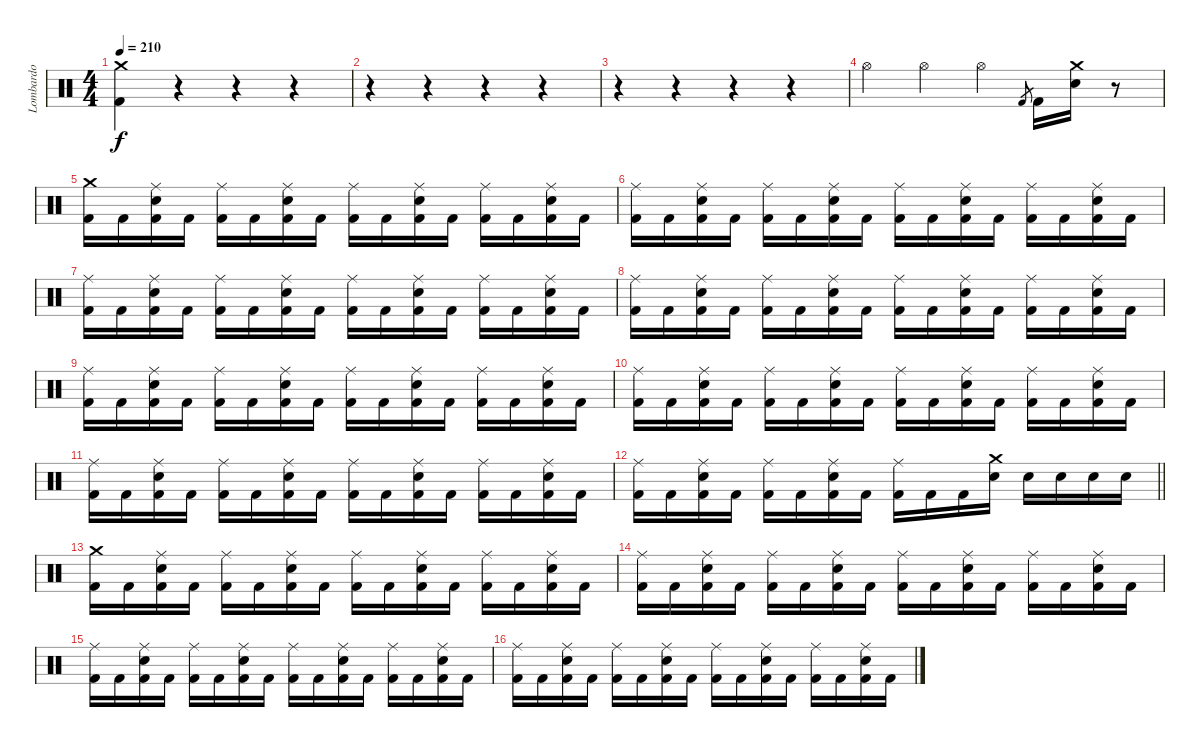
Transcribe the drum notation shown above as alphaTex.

\track ("Lombardo" "Lombardo") {instrument percussion}
\staff {score}
\articulation defaults
\ts (4 4)
\tempo 210
\clef neutral
\ks c
("Crash medium (hit)" "Kick (hit) 2").4{dy f} r.4 r.4 r.4 |
r.4 r.4 r.4 r.4 |
r.4 r.4 r.4 r.4 |
"Hi-Hat (open)".4 "Hi-Hat (open)".4 "Hi-Hat (open)".4 "Kick (hit) 2".8{gr} "Kick (hit) 2".16 ("Crash medium (hit)" "Snare (hit) 2").16 r.8 |
("Crash medium (hit)" "Kick (hit) 2").16 "Kick (hit) 2".16 ("Ride (middle)" "Snare (hit) 2" "Kick (hit) 2").16 "Kick (hit) 2".16 ("Ride (middle)" "Kick (hit) 2").16 "Kick (hit) 2".16 ("Ride (middle)" "Snare (hit) 2" "Kick (hit) 2").16 "Kick (hit) 2".16 ("Ride (middle)" "Kick (hit) 2").16 "Kick (hit) 2".16 ("Ride (middle)" "Snare (hit) 2" "Kick (hit) 2").16 "Kick (hit) 2".16 ("Ride (middle)" "Kick (hit) 2").16 "Kick (hit) 2".16 ("Ride (middle)" "Snare (hit) 2" "Kick (hit) 2").16 "Kick (hit) 2".16 |
("Ride (middle)" "Kick (hit) 2").16 "Kick (hit) 2".16 ("Ride (middle)" "Snare (hit) 2" "Kick (hit) 2").16 "Kick (hit) 2".16 ("Ride (middle)" "Kick (hit) 2").16 "Kick (hit) 2".16 ("Ride (middle)" "Snare (hit) 2" "Kick (hit) 2").16 "Kick (hit) 2".16 ("Ride (middle)" "Kick (hit) 2").16 "Kick (hit) 2".16 ("Ride (middle)" "Snare (hit) 2" "Kick (hit) 2").16 "Kick (hit) 2".16 ("Ride (middle)" "Kick (hit) 2").16 "Kick (hit) 2".16 ("Ride (middle)" "Snare (hit) 2" "Kick (hit) 2").16 "Kick (hit) 2".16 |
("Ride (middle)" "Kick (hit) 2").16 "Kick (hit) 2".16 ("Ride (middle)" "Snare (hit) 2" "Kick (hit) 2").16 "Kick (hit) 2".16 ("Ride (middle)" "Kick (hit) 2").16 "Kick (hit) 2".16 ("Ride (middle)" "Snare (hit) 2" "Kick (hit) 2").16 "Kick (hit) 2".16 ("Ride (middle)" "Kick (hit) 2").16 "Kick (hit) 2".16 ("Ride (middle)" "Snare (hit) 2" "Kick (hit) 2").16 "Kick (hit) 2".16 ("Ride (middle)" "Kick (hit) 2").16 "Kick (hit) 2".16 ("Ride (middle)" "Snare (hit) 2" "Kick (hit) 2").16 "Kick (hit) 2".16 |
("Ride (middle)" "Kick (hit) 2").16 "Kick (hit) 2".16 ("Ride (middle)" "Snare (hit) 2" "Kick (hit) 2").16 "Kick (hit) 2".16 ("Ride (middle)" "Kick (hit) 2").16 "Kick (hit) 2".16 ("Ride (middle)" "Snare (hit) 2" "Kick (hit) 2").16 "Kick (hit) 2".16 ("Ride (middle)" "Kick (hit) 2").16 "Kick (hit) 2".16 ("Ride (middle)" "Snare (hit) 2" "Kick (hit) 2").16 "Kick (hit) 2".16 ("Ride (middle)" "Kick (hit) 2").16 "Kick (hit) 2".16 ("Ride (middle)" "Snare (hit) 2" "Kick (hit) 2").16 "Kick (hit) 2".16 |
("Ride (middle)" "Kick (hit) 2").16 "Kick (hit) 2".16 ("Ride (middle)" "Snare (hit) 2" "Kick (hit) 2").16 "Kick (hit) 2".16 ("Ride (middle)" "Kick (hit) 2").16 "Kick (hit) 2".16 ("Ride (middle)" "Snare (hit) 2" "Kick (hit) 2").16 "Kick (hit) 2".16 ("Ride (middle)" "Kick (hit) 2").16 "Kick (hit) 2".16 ("Ride (middle)" "Snare (hit) 2" "Kick (hit) 2").16 "Kick (hit) 2".16 ("Ride (middle)" "Kick (hit) 2").16 "Kick (hit) 2".16 ("Ride (middle)" "Snare (hit) 2" "Kick (hit) 2").16 "Kick (hit) 2".16 |
("Ride (middle)" "Kick (hit) 2").16 "Kick (hit) 2".16 ("Ride (middle)" "Snare (hit) 2" "Kick (hit) 2").16 "Kick (hit) 2".16 ("Ride (middle)" "Kick (hit) 2").16 "Kick (hit) 2".16 ("Ride (middle)" "Snare (hit) 2" "Kick (hit) 2").16 "Kick (hit) 2".16 ("Ride (middle)" "Kick (hit) 2").16 "Kick (hit) 2".16 ("Ride (middle)" "Snare (hit) 2" "Kick (hit) 2").16 "Kick (hit) 2".16 ("Ride (middle)" "Kick (hit) 2").16 "Kick (hit) 2".16 ("Ride (middle)" "Snare (hit) 2" "Kick (hit) 2").16 "Kick (hit) 2".16 |
("Ride (middle)" "Kick (hit) 2").16 "Kick (hit) 2".16 ("Ride (middle)" "Snare (hit) 2" "Kick (hit) 2").16 "Kick (hit) 2".16 ("Ride (middle)" "Kick (hit) 2").16 "Kick (hit) 2".16 ("Ride (middle)" "Snare (hit) 2" "Kick (hit) 2").16 "Kick (hit) 2".16 ("Ride (middle)" "Kick (hit) 2").16 "Kick (hit) 2".16 ("Ride (middle)" "Snare (hit) 2" "Kick (hit) 2").16 "Kick (hit) 2".16 ("Ride (middle)" "Kick (hit) 2").16 "Kick (hit) 2".16 ("Ride (middle)" "Snare (hit) 2" "Kick (hit) 2").16 "Kick (hit) 2".16 |
\barLineRight lightlight
("Ride (middle)" "Kick (hit) 2").16 "Kick (hit) 2".16 ("Ride (middle)" "Snare (hit) 2" "Kick (hit) 2").16 "Kick (hit) 2".16 ("Ride (middle)" "Kick (hit) 2").16 "Kick (hit) 2".16 ("Ride (middle)" "Snare (hit) 2" "Kick (hit) 2").16 "Kick (hit) 2".16 ("Ride (middle)" "Kick (hit) 2").16 "Kick (hit) 2".16 "Kick (hit) 2".16 ("Crash medium (hit)" "Snare (hit) 2").16 "Snare (hit) 2".16 "Snare (hit) 2".16 "Snare (hit) 2".16 "Snare (hit) 2".16 |
("Crash medium (hit)" "Kick (hit) 2").16 "Kick (hit) 2".16 ("Ride (middle)" "Snare (hit) 2" "Kick (hit) 2").16 "Kick (hit) 2".16 ("Ride (middle)" "Kick (hit) 2").16 "Kick (hit) 2".16 ("Ride (middle)" "Snare (hit) 2" "Kick (hit) 2").16 "Kick (hit) 2".16 ("Ride (middle)" "Kick (hit) 2").16 "Kick (hit) 2".16 ("Ride (middle)" "Snare (hit) 2" "Kick (hit) 2").16 "Kick (hit) 2".16 ("Ride (middle)" "Kick (hit) 2").16 "Kick (hit) 2".16 ("Ride (middle)" "Snare (hit) 2" "Kick (hit) 2").16 "Kick (hit) 2".16 |
("Ride (middle)" "Kick (hit) 2").16 "Kick (hit) 2".16 ("Ride (middle)" "Snare (hit) 2" "Kick (hit) 2").16 "Kick (hit) 2".16 ("Ride (middle)" "Kick (hit) 2").16 "Kick (hit) 2".16 ("Ride (middle)" "Snare (hit) 2" "Kick (hit) 2").16 "Kick (hit) 2".16 ("Ride (middle)" "Kick (hit) 2").16 "Kick (hit) 2".16 ("Ride (middle)" "Snare (hit) 2" "Kick (hit) 2").16 "Kick (hit) 2".16 ("Ride (middle)" "Kick (hit) 2").16 "Kick (hit) 2".16 ("Ride (middle)" "Snare (hit) 2" "Kick (hit) 2").16 "Kick (hit) 2".16 |
("Ride (middle)" "Kick (hit) 2").16 "Kick (hit) 2".16 ("Ride (middle)" "Snare (hit) 2" "Kick (hit) 2").16 "Kick (hit) 2".16 ("Ride (middle)" "Kick (hit) 2").16 "Kick (hit) 2".16 ("Ride (middle)" "Snare (hit) 2" "Kick (hit) 2").16 "Kick (hit) 2".16 ("Ride (middle)" "Kick (hit) 2").16 "Kick (hit) 2".16 ("Ride (middle)" "Snare (hit) 2" "Kick (hit) 2").16 "Kick (hit) 2".16 ("Ride (middle)" "Kick (hit) 2").16 "Kick (hit) 2".16 ("Ride (middle)" "Snare (hit) 2" "Kick (hit) 2").16 "Kick (hit) 2".16 |
("Ride (middle)" "Kick (hit) 2").16 "Kick (hit) 2".16 ("Ride (middle)" "Snare (hit) 2" "Kick (hit) 2").16 "Kick (hit) 2".16 ("Ride (middle)" "Kick (hit) 2").16 "Kick (hit) 2".16 ("Ride (middle)" "Snare (hit) 2" "Kick (hit) 2").16 "Kick (hit) 2".16 ("Ride (middle)" "Kick (hit) 2").16 "Kick (hit) 2".16 ("Ride (middle)" "Snare (hit) 2" "Kick (hit) 2").16 "Kick (hit) 2".16 ("Ride (middle)" "Kick (hit) 2").16 "Kick (hit) 2".16 ("Ride (middle)" "Snare (hit) 2" "Kick (hit) 2").16 "Kick (hit) 2".16
